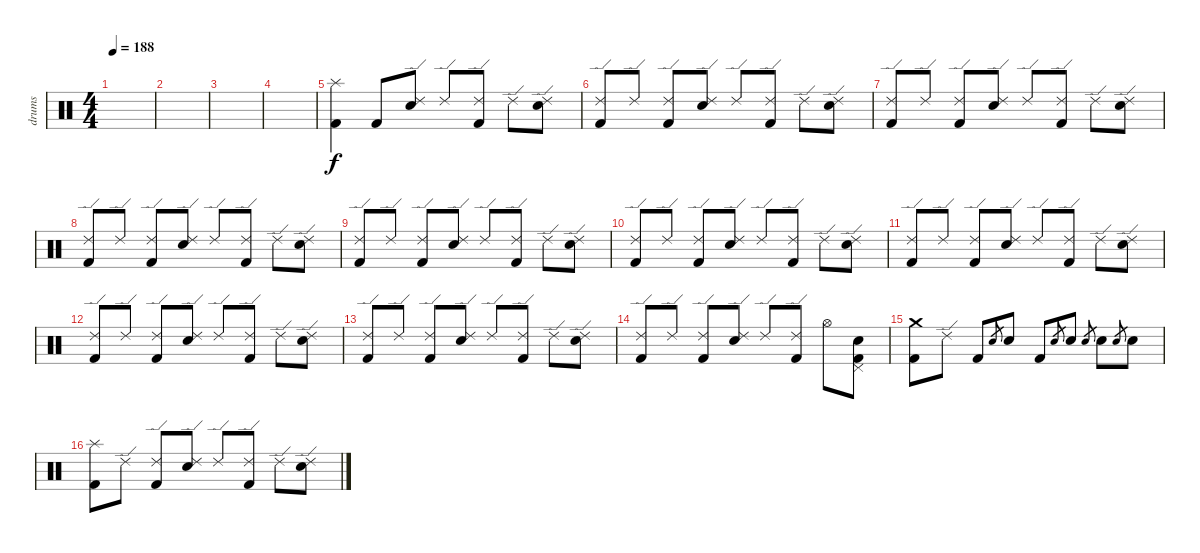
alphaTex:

\track ("drums" "drums") {instrument percussion}
\staff {score}
\articulation defaults
\ts (4 4)
\tempo 188
\clef neutral
\ks c
|
|
|
|
("Splash (hit)" "Kick (hit) 2").4 "Kick (hit) 2".8 ("Ride (edge) 2" "Electric Snare (hit)").8 "Ride (edge) 2".8 ("Ride (edge) 2" "Kick (hit) 2").8 "Ride (edge) 2".8 ("Ride (edge) 2" "Electric Snare (hit)").8 |
("Ride (edge) 2" "Kick (hit) 2").8 "Ride (edge) 2".8 ("Ride (edge) 2" "Kick (hit) 2").8 ("Ride (edge) 2" "Electric Snare (hit)").8 "Ride (edge) 2".8 ("Ride (edge) 2" "Kick (hit) 2").8 "Ride (edge) 2".8 ("Ride (edge) 2" "Electric Snare (hit)").8 |
("Ride (edge) 2" "Kick (hit) 2").8 "Ride (edge) 2".8 ("Ride (edge) 2" "Kick (hit) 2").8 ("Ride (edge) 2" "Electric Snare (hit)").8 "Ride (edge) 2".8 ("Ride (edge) 2" "Kick (hit) 2").8 "Ride (edge) 2".8 ("Ride (edge) 2" "Electric Snare (hit)").8 |
("Ride (edge) 2" "Kick (hit) 2").8 "Ride (edge) 2".8 ("Ride (edge) 2" "Kick (hit) 2").8 ("Ride (edge) 2" "Electric Snare (hit)").8 "Ride (edge) 2".8 ("Ride (edge) 2" "Kick (hit) 2").8 "Ride (edge) 2".8 ("Ride (edge) 2" "Electric Snare (hit)").8 |
("Ride (edge) 2" "Kick (hit) 2").8 "Ride (edge) 2".8 ("Ride (edge) 2" "Kick (hit) 2").8 ("Ride (edge) 2" "Electric Snare (hit)").8 "Ride (edge) 2".8 ("Ride (edge) 2" "Kick (hit) 2").8 "Ride (edge) 2".8 ("Ride (edge) 2" "Electric Snare (hit)").8 |
("Ride (edge) 2" "Kick (hit) 2").8 "Ride (edge) 2".8 ("Ride (edge) 2" "Kick (hit) 2").8 ("Ride (edge) 2" "Electric Snare (hit)").8 "Ride (edge) 2".8 ("Ride (edge) 2" "Kick (hit) 2").8 "Ride (edge) 2".8 ("Ride (edge) 2" "Electric Snare (hit)").8 |
("Ride (edge) 2" "Kick (hit) 2").8 "Ride (edge) 2".8 ("Ride (edge) 2" "Kick (hit) 2").8 ("Ride (edge) 2" "Electric Snare (hit)").8 "Ride (edge) 2".8 ("Ride (edge) 2" "Kick (hit) 2").8 "Ride (edge) 2".8 ("Ride (edge) 2" "Electric Snare (hit)").8 |
("Ride (edge) 2" "Kick (hit) 2").8 "Ride (edge) 2".8 ("Ride (edge) 2" "Kick (hit) 2").8 ("Ride (edge) 2" "Electric Snare (hit)").8 "Ride (edge) 2".8 ("Ride (edge) 2" "Kick (hit) 2").8 "Ride (edge) 2".8 ("Ride (edge) 2" "Electric Snare (hit)").8 |
("Ride (edge) 2" "Kick (hit) 2").8 "Ride (edge) 2".8 ("Ride (edge) 2" "Kick (hit) 2").8 ("Ride (edge) 2" "Electric Snare (hit)").8 "Ride (edge) 2".8 ("Ride (edge) 2" "Kick (hit) 2").8 "Ride (edge) 2".8 ("Ride (edge) 2" "Electric Snare (hit)").8 |
("Ride (edge) 2" "Kick (hit) 2").8 "Ride (edge) 2".8 ("Ride (edge) 2" "Kick (hit) 2").8 ("Ride (edge) 2" "Electric Snare (hit)").8 "Ride (edge) 2".8 ("Ride (edge) 2" "Kick (hit) 2").8 "Hi-Hat (open)".8 ("Pedal Hi-Hat (hit)" "Electric Snare (hit)" "Kick (hit) 2").8 |
("Crash medium (hit)" "Kick (hit) 2").8 "Ride (edge) 2".8 "Kick (hit) 2".8 "Electric Snare (hit)".8{gr} "Electric Snare (hit)".8 "Kick (hit) 2".8 "Electric Snare (hit)".8{gr} "Electric Snare (hit)".8 "Electric Snare (hit)".8{gr} "Electric Snare (hit)".8 "Electric Snare (hit)".8{gr} "Electric Snare (hit)".8 |
("Splash (hit)" "Kick (hit) 2").8 "Ride (edge) 2".8 ("Ride (edge) 2" "Kick (hit) 2").8 ("Ride (edge) 2" "Electric Snare (hit)").8 "Ride (edge) 2".8 ("Ride (edge) 2" "Kick (hit) 2").8 "Ride (edge) 2".8 ("Ride (edge) 2" "Electric Snare (hit)").8
